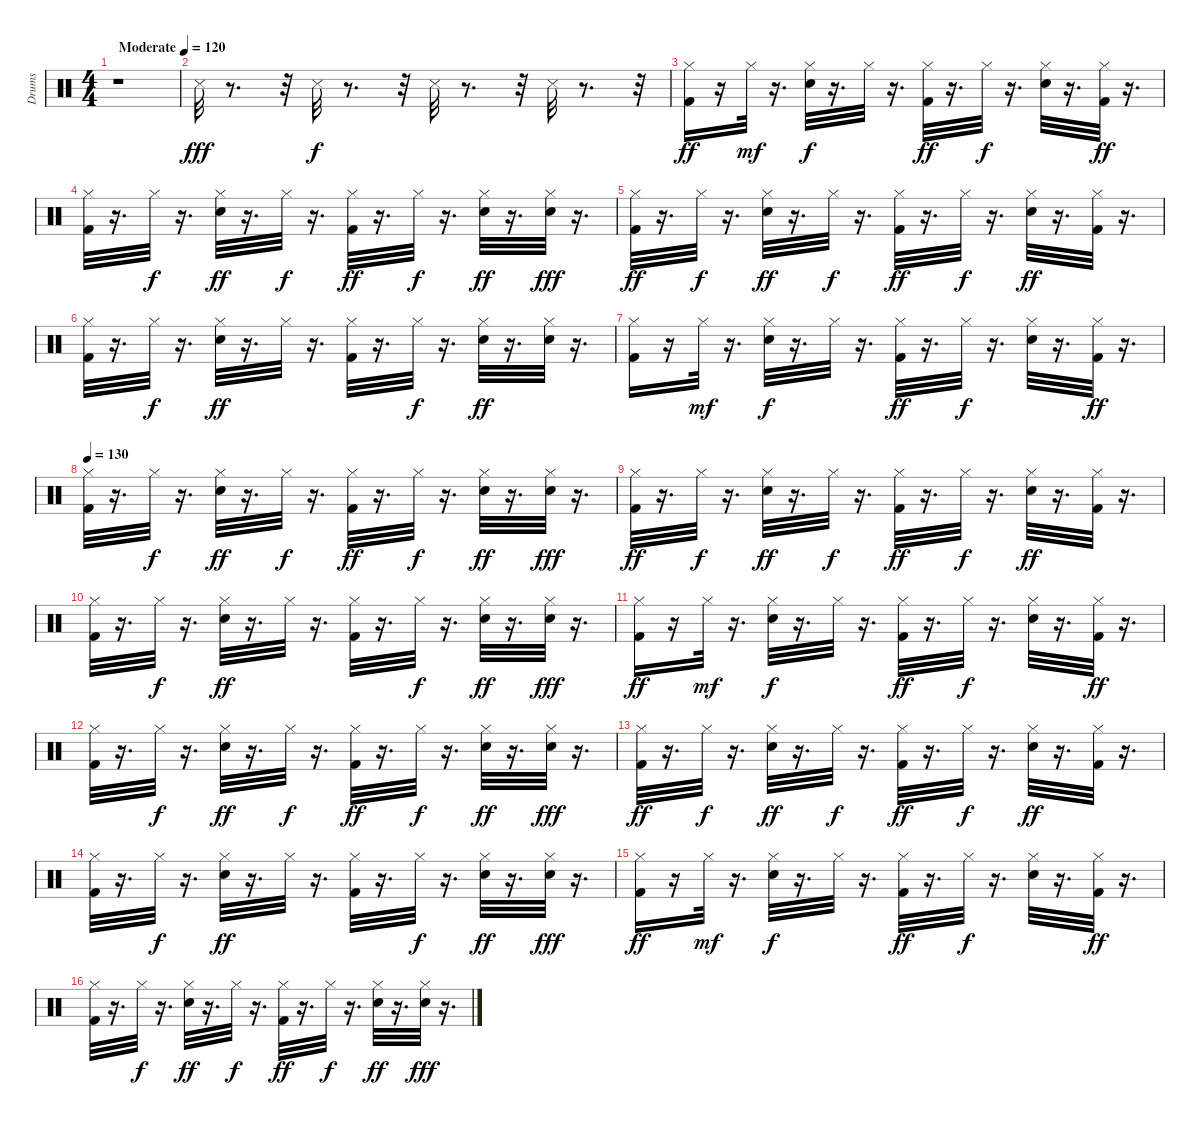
\track ("Drums" "Drums") {instrument percussion}
\staff {score}
\articulation defaults
\ts (4 4)
\tempo (120 "Moderate")
\clef neutral
\ks c
r.1{dy fff} |
"Snare (side stick) 3".32 r.8{d} r.32 "Snare (side stick) 3".32{dy f} r.8{d} r.32 "Snare (side stick) 3".32 r.8{d} r.32 "Snare (side stick) 3".32 r.8{d} r.32 |
("Kick (hit) 2" "Hi-Hat (closed)").16{dy ff} r.16 "Hi-Hat (closed)".32{dy mf} r.16{d} ("Snare (hit) 2" "Hi-Hat (closed)").32{dy f} r.16{d} "Hi-Hat (closed)".32 r.16{d} ("Hi-Hat (closed)" "Kick (hit) 2").32{dy ff} r.16{d} "Hi-Hat (closed)".32{dy f} r.16{d} ("Hi-Hat (closed)" "Snare (hit) 2").32 r.16{d} ("Kick (hit) 2" "Hi-Hat (closed)").32{dy ff} r.16{d} |
("Kick (hit) 2" "Hi-Hat (closed)").32 r.16{d} "Hi-Hat (closed)".32{dy f} r.16{d} ("Hi-Hat (closed)" "Snare (hit) 2").32{dy ff} r.16{d} "Hi-Hat (closed)".32{dy f} r.16{d} ("Kick (hit) 2" "Hi-Hat (closed)").32{dy ff} r.16{d} "Hi-Hat (closed)".32{dy f} r.16{d} ("Snare (hit) 2" "Hi-Hat (closed)").32{dy ff} r.16{d} ("Hi-Hat (closed)" "Hand Clap (hit)").32{dy fff} r.16{d} |
("Hi-Hat (closed)" "Kick (hit) 2").32{dy ff} r.16{d} "Hi-Hat (closed)".32{dy f} r.16{d} ("Snare (hit) 2" "Hi-Hat (closed)").32{dy ff} r.16{d} "Hi-Hat (closed)".32{dy f} r.16{d} ("Kick (hit) 2" "Hi-Hat (closed)").32{dy ff} r.16{d} "Hi-Hat (closed)".32{dy f} r.16{d} ("Snare (hit) 2" "Hi-Hat (closed)").32{dy ff} r.16{d} ("Kick (hit) 2" "Hi-Hat (closed)").32 r.16{d} |
("Kick (hit) 2" "Hi-Hat (closed)").32 r.16{d} "Hi-Hat (closed)".32{dy f} r.16{d} ("Snare (hit) 2" "Hi-Hat (closed)").32{dy ff} r.16{d} "Hi-Hat (closed)".32 r.16{d} ("Hi-Hat (closed)" "Kick (hit) 2").32 r.16{d} "Hi-Hat (closed)".32{dy f} r.16{d} ("Snare (hit) 2" "Hi-Hat (closed)").32{dy ff} r.16{d} ("Hand Clap (hit)" "Hi-Hat (closed)").32 r.16{d} |
("Hi-Hat (closed)" "Kick (hit) 2").16 r.16 "Hi-Hat (closed)".32{dy mf} r.16{d} ("Snare (hit) 2" "Hi-Hat (closed)").32{dy f} r.16{d} "Hi-Hat (closed)".32 r.16{d} ("Kick (hit) 2" "Hi-Hat (closed)").32{dy ff} r.16{d} "Hi-Hat (closed)".32{dy f} r.16{d} ("Snare (hit) 2" "Hi-Hat (closed)").32 r.16{d} ("Hi-Hat (closed)" "Kick (hit) 2").32{dy ff} r.16{d} |
\tempo 130
("Kick (hit) 2" "Hi-Hat (closed)").32 r.16{d} "Hi-Hat (closed)".32{dy f} r.16{d} ("Snare (hit) 2" "Hi-Hat (closed)").32{dy ff} r.16{d} "Hi-Hat (closed)".32{dy f} r.16{d} ("Hi-Hat (closed)" "Kick (hit) 2").32{dy ff} r.16{d} "Hi-Hat (closed)".32{dy f} r.16{d} ("Snare (hit) 2" "Hi-Hat (closed)").32{dy ff} r.16{d} ("Hand Clap (hit)" "Hi-Hat (closed)").32{dy fff} r.16{d} |
("Hi-Hat (closed)" "Kick (hit) 2").32{dy ff} r.16{d} "Hi-Hat (closed)".32{dy f} r.16{d} ("Snare (hit) 2" "Hi-Hat (closed)").32{dy ff} r.16{d} "Hi-Hat (closed)".32{dy f} r.16{d} ("Hi-Hat (closed)" "Kick (hit) 2").32{dy ff} r.16{d} "Hi-Hat (closed)".32{dy f} r.16{d} ("Hi-Hat (closed)" "Snare (hit) 2").32{dy ff} r.16{d} ("Hi-Hat (closed)" "Kick (hit) 2").32 r.16{d} |
("Hi-Hat (closed)" "Kick (hit) 2").32 r.16{d} "Hi-Hat (closed)".32{dy f} r.16{d} ("Hi-Hat (closed)" "Snare (hit) 2").32{dy ff} r.16{d} "Hi-Hat (closed)".32 r.16{d} ("Hi-Hat (closed)" "Kick (hit) 2").32 r.16{d} "Hi-Hat (closed)".32{dy f} r.16{d} ("Hi-Hat (closed)" "Snare (hit) 2").32{dy ff} r.16{d} ("Hi-Hat (closed)" "Hand Clap (hit)").32{dy fff} r.16{d} |
("Kick (hit) 2" "Hi-Hat (closed)").16{dy ff} r.16 "Hi-Hat (closed)".32{dy mf} r.16{d} ("Snare (hit) 2" "Hi-Hat (closed)").32{dy f} r.16{d} "Hi-Hat (closed)".32 r.16{d} ("Hi-Hat (closed)" "Kick (hit) 2").32{dy ff} r.16{d} "Hi-Hat (closed)".32{dy f} r.16{d} ("Hi-Hat (closed)" "Snare (hit) 2").32 r.16{d} ("Hi-Hat (closed)" "Kick (hit) 2").32{dy ff} r.16{d} |
("Kick (hit) 2" "Hi-Hat (closed)").32 r.16{d} "Hi-Hat (closed)".32{dy f} r.16{d} ("Snare (hit) 2" "Hi-Hat (closed)").32{dy ff} r.16{d} "Hi-Hat (closed)".32{dy f} r.16{d} ("Kick (hit) 2" "Hi-Hat (closed)").32{dy ff} r.16{d} "Hi-Hat (closed)".32{dy f} r.16{d} ("Hi-Hat (closed)" "Snare (hit) 2").32{dy ff} r.16{d} ("Hi-Hat (closed)" "Hand Clap (hit)").32{dy fff} r.16{d} |
("Kick (hit) 2" "Hi-Hat (closed)").32{dy ff} r.16{d} "Hi-Hat (closed)".32{dy f} r.16{d} ("Snare (hit) 2" "Hi-Hat (closed)").32{dy ff} r.16{d} "Hi-Hat (closed)".32{dy f} r.16{d} ("Kick (hit) 2" "Hi-Hat (closed)").32{dy ff} r.16{d} "Hi-Hat (closed)".32{dy f} r.16{d} ("Snare (hit) 2" "Hi-Hat (closed)").32{dy ff} r.16{d} ("Hi-Hat (closed)" "Kick (hit) 2").32 r.16{d} |
("Kick (hit) 2" "Hi-Hat (closed)").32 r.16{d} "Hi-Hat (closed)".32{dy f} r.16{d} ("Hi-Hat (closed)" "Snare (hit) 2").32{dy ff} r.16{d} "Hi-Hat (closed)".32 r.16{d} ("Kick (hit) 2" "Hi-Hat (closed)").32 r.16{d} "Hi-Hat (closed)".32{dy f} r.16{d} ("Hi-Hat (closed)" "Snare (hit) 2").32{dy ff} r.16{d} ("Hi-Hat (closed)" "Hand Clap (hit)").32{dy fff} r.16{d} |
("Kick (hit) 2" "Hi-Hat (closed)").16{dy ff} r.16 "Hi-Hat (closed)".32{dy mf} r.16{d} ("Snare (hit) 2" "Hi-Hat (closed)").32{dy f} r.16{d} "Hi-Hat (closed)".32 r.16{d} ("Kick (hit) 2" "Hi-Hat (closed)").32{dy ff} r.16{d} "Hi-Hat (closed)".32{dy f} r.16{d} ("Hi-Hat (closed)" "Snare (hit) 2").32 r.16{d} ("Hi-Hat (closed)" "Kick (hit) 2").32{dy ff} r.16{d} |
("Kick (hit) 2" "Hi-Hat (closed)").32 r.16{d} "Hi-Hat (closed)".32{dy f} r.16{d} ("Hi-Hat (closed)" "Snare (hit) 2").32{dy ff} r.16{d} "Hi-Hat (closed)".32{dy f} r.16{d} ("Kick (hit) 2" "Hi-Hat (closed)").32{dy ff} r.16{d} "Hi-Hat (closed)".32{dy f} r.16{d} ("Snare (hit) 2" "Hi-Hat (closed)").32{dy ff} r.16{d} ("Hand Clap (hit)" "Hi-Hat (closed)").32{dy fff} r.16{d}
